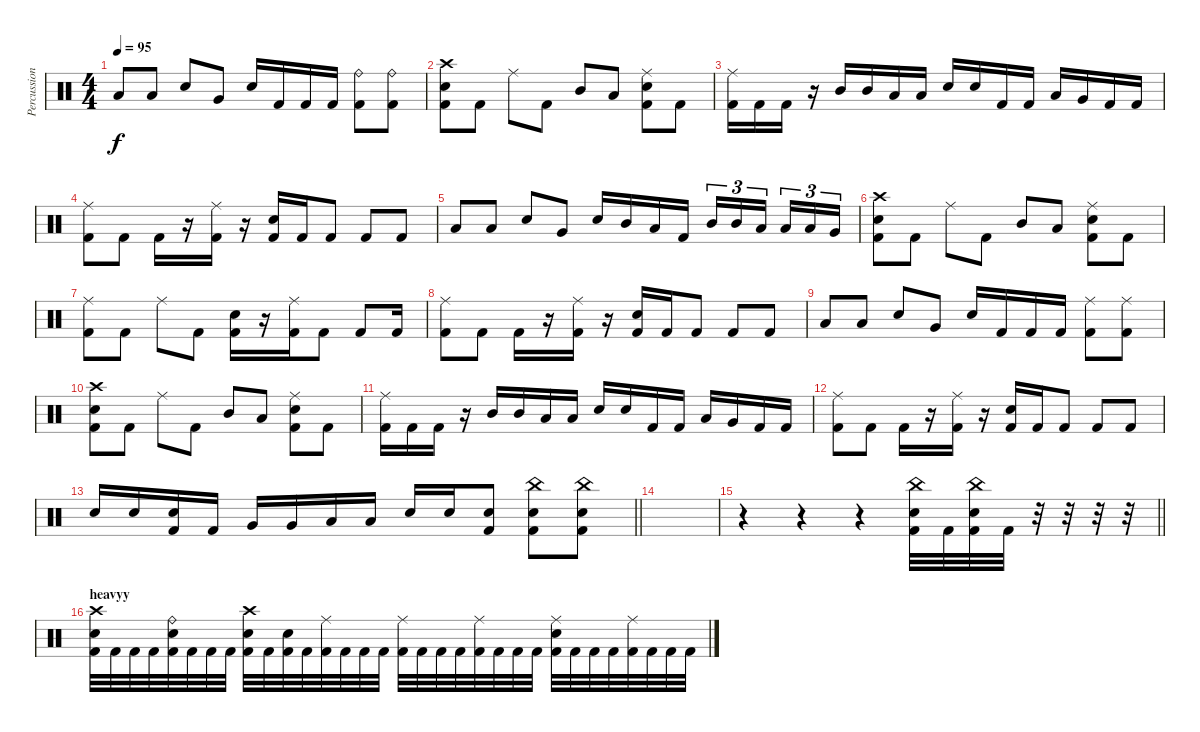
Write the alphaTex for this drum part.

\track ("Percussion" "Percussion") {instrument percussion}
\staff {score}
\articulation defaults
\ts (4 4)
\tempo 95
\clef neutral
\ks c "Low Tom (hit)".8{dy f} "Low Tom (hit)".8 "Electric Snare (hit)".8 "Very Low Tom (hit)".8 "Electric Snare (hit)".16 "Kick (hit) 2".16 "Kick (hit) 2".16 "Kick (hit) 2".16
("Ride (bell)" "Kick (hit) 2").8 ("Ride (bell)" "Kick (hit) 2").8 |
("Crash high (hit)" "Electric Snare (hit)" "Kick (hit) 2").8 "Kick (hit) 2".8 "Ride (middle)".8 "Kick (hit) 2".8 "Mid Tom (hit)".8 "Low Tom (hit)".8 ("Ride (middle)" "Electric Snare (hit)" "Kick (hit) 2").8 "Kick (hit) 2".8 |
("Ride (middle)" "Kick (hit) 2").16 "Kick (hit) 2".16 "Kick (hit) 2".16 r.16 "Mid Tom (hit)".16 "Mid Tom (hit)".16 "Low Tom (hit)".16 "Low Tom (hit)".16 "Electric Snare (hit)".16 "Electric Snare (hit)".16 "Kick (hit) 2".16 "Kick (hit) 2".16 "Low Tom (hit)".16 "Very Low Tom (hit)".16 "Kick (hit) 2".16 "Kick (hit) 2".16 |
("Ride (middle)" "Kick (hit) 2").8 "Kick (hit) 2".8 "Kick (hit) 2".16 r.16 ("Ride (middle)" "Kick (hit) 2").16 r.16 ("Electric Snare (hit)" "Kick (hit) 2").16 "Kick (hit) 2".16 "Kick (hit) 2".8 "Kick (hit) 2".8 "Kick (hit) 2".8 |
"Low Tom (hit)".8 "Low Tom (hit)".8 "Electric Snare (hit)".8 "Very Low Tom (hit)".8 "Electric Snare (hit)".16 "Mid Tom (hit)".16 "Low Tom (hit)".16 "Kick (hit) 2".16 "Mid Tom (hit)".16{tu (3 2)} "Mid Tom (hit)".16{tu (3 2)} "Low Tom (hit)".16{tu (3 2)} "Low Tom (hit)".16{tu (3 2)} "Low Tom (hit)".16{tu (3 2)} "Very Low Tom (hit)".16{tu (3 2)} |
("Crash high (hit)" "Electric Snare (hit)" "Kick (hit) 2").8 "Kick (hit) 2".8 "Ride (middle)".8 "Kick (hit) 2".8 "Mid Tom (hit)".8 "Low Tom (hit)".8 ("Ride (middle)" "Electric Snare (hit)" "Kick (hit) 2").8 "Kick (hit) 2".8 |
("Ride (middle)" "Kick (hit) 2").8 "Kick (hit) 2".8 "Ride (middle)".8 "Kick (hit) 2".8 ("Electric Snare (hit)" "Kick (hit) 2").16 r.16 ("Ride (middle)" "Kick (hit) 2").16 "Kick (hit) 2".8 "Kick (hit) 2".8 "Kick (hit) 2".16 |
("Ride (middle)" "Kick (hit) 2").8 "Kick (hit) 2".8 "Kick (hit) 2".16 r.16 ("Ride (middle)" "Kick (hit) 2").16 r.16 ("Electric Snare (hit)" "Kick (hit) 2").16 "Kick (hit) 2".16 "Kick (hit) 2".8 "Kick (hit) 2".8 "Kick (hit) 2".8 |
"Low Tom (hit)".8 "Low Tom (hit)".8 "Electric Snare (hit)".8 "Very Low Tom (hit)".8 "Electric Snare (hit)".16 "Kick (hit) 2".16 "Kick (hit) 2".16 "Kick (hit) 2".16 ("Ride (middle)" "Kick (hit) 2").8 ("Ride (middle)" "Kick (hit) 2").8 |
("Crash high (hit)" "Electric Snare (hit)" "Kick (hit) 2").8 "Kick (hit) 2".8 "Ride (middle)".8 "Kick (hit) 2".8 "Mid Tom (hit)".8 "Low Tom (hit)".8 ("Ride (middle)" "Electric Snare (hit)" "Kick (hit) 2").8 "Kick (hit) 2".8 |
("Ride (middle)" "Kick (hit) 2").16 "Kick (hit) 2".16 "Kick (hit) 2".16 r.16 "Mid Tom (hit)".16 "Mid Tom (hit)".16 "Low Tom (hit)".16 "Low Tom (hit)".16 "Electric Snare (hit)".16 "Electric Snare (hit)".16 "Kick (hit) 2".16 "Kick (hit) 2".16 "Low Tom (hit)".16 "Very Low Tom (hit)".16 "Kick (hit) 2".16 "Kick (hit) 2".16 |
("Ride (middle)" "Kick (hit) 2").8 "Kick (hit) 2".8 "Kick (hit) 2".16 r.16 ("Ride (middle)" "Kick (hit) 2").16 r.16 ("Electric Snare (hit)" "Kick (hit) 2").16 "Kick (hit) 2".16 "Kick (hit) 2".8 "Kick (hit) 2".8 "Kick (hit) 2".8 |
\barLineRight lightlight "Electric Snare (hit)".16 "Electric Snare (hit)".16
("Electric Snare (hit)" "Kick (hit) 2").16 "Kick (hit) 2".16 "Very Low Tom (hit)".16 "Very Low Tom (hit)".16 "Low Floor Tom (hit)".16 "Low Floor Tom (hit)".16 "Electric Snare (hit)".16 "Electric Snare (hit)".16 ("Electric Snare (hit)" "Kick (hit) 2").8 ("China (hit)" "Electric Snare (hit)" "Kick (hit) 2").8 ("China (hit)" "Electric Snare (hit)" "Kick (hit) 2").8 |
|
\barLineRight lightlight
r.4 r.4 r.4 ("China (hit)" "Electric Snare (hit)" "Kick (hit) 2").32 "Kick (hit) 2".32 ("China (hit)" "Electric Snare (hit)" "Kick (hit) 2").32 "Kick (hit) 2".32 r.32 r.32 r.32 r.32 |
\section ("" "heavyy")
("Crash high (hit)" "Electric Snare (hit)" "Kick (hit) 2").32 "Kick (hit) 2".32 "Kick (hit) 2".32 "Kick (hit) 2".32 ("Ride (bell)" "Electric Snare (hit)" "Kick (hit) 2").32 "Kick (hit) 2".32 "Kick (hit) 2".32 "Kick (hit) 2".32 ("Crash high (hit)" "Electric Snare (hit)" "Kick (hit) 2").32 "Kick (hit) 2".32 ("Electric Snare (hit)" "Kick (hit) 2").32 "Kick (hit) 2".32 ("Ride (middle)" "Kick (hit) 2").32 "Kick (hit) 2".32 "Kick (hit) 2".32 "Kick (hit) 2".32 ("Ride (middle)" "Kick (hit) 2").32 "Kick (hit) 2".32 "Kick (hit) 2".32 "Kick (hit) 2".32 ("Ride (middle)" "Kick (hit) 2").32 "Kick (hit) 2".32 "Kick (hit) 2".32 "Kick (hit) 2".32 ("Ride (middle)" "Electric Snare (hit)" "Kick (hit) 2").32 "Kick (hit) 2".32 "Kick (hit) 2".32 "Kick (hit) 2".32 ("Ride (middle)" "Kick (hit) 2").32 "Kick (hit) 2".32 "Kick (hit) 2".32 "Kick (hit) 2".32
